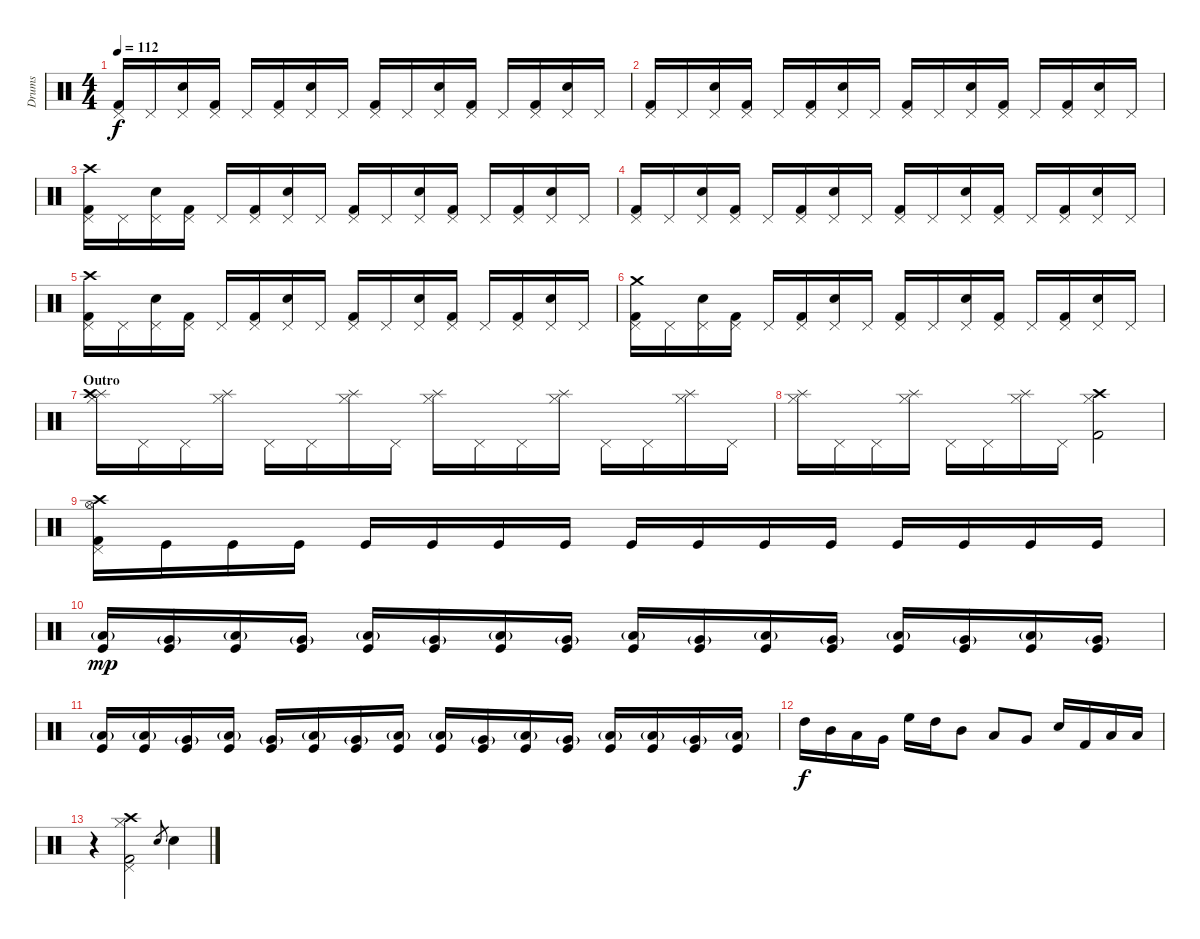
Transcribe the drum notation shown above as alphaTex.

\track ("Drums" "Drums") {instrument percussion}
\staff {score}
\articulation defaults
\ts (4 4)
\tempo 112
\clef neutral
\ks c
("Kick (hit) 2" "Pedal Hi-Hat (hit)").16{dy f} "Pedal Hi-Hat (hit)".16 ("Snare (hit) 2" "Pedal Hi-Hat (hit)").16 ("Kick (hit) 2" "Pedal Hi-Hat (hit)").16 "Pedal Hi-Hat (hit)".16 ("Kick (hit) 2" "Pedal Hi-Hat (hit)").16 ("Snare (hit) 2" "Pedal Hi-Hat (hit)").16 "Pedal Hi-Hat (hit)".16 ("Kick (hit) 2" "Pedal Hi-Hat (hit)").16 "Pedal Hi-Hat (hit)".16 ("Snare (hit) 2" "Pedal Hi-Hat (hit)").16 ("Kick (hit) 2" "Pedal Hi-Hat (hit)").16 "Pedal Hi-Hat (hit)".16 ("Kick (hit) 2" "Pedal Hi-Hat (hit)").16 ("Snare (hit) 2" "Pedal Hi-Hat (hit)").16 "Pedal Hi-Hat (hit)".16 |
("Kick (hit) 2" "Pedal Hi-Hat (hit)").16 "Pedal Hi-Hat (hit)".16 ("Snare (hit) 2" "Pedal Hi-Hat (hit)").16 ("Kick (hit) 2" "Pedal Hi-Hat (hit)").16 "Pedal Hi-Hat (hit)".16 ("Kick (hit) 2" "Pedal Hi-Hat (hit)").16 ("Snare (hit) 2" "Pedal Hi-Hat (hit)").16 "Pedal Hi-Hat (hit)".16 ("Kick (hit) 2" "Pedal Hi-Hat (hit)").16 "Pedal Hi-Hat (hit)".16 ("Snare (hit) 2" "Pedal Hi-Hat (hit)").16 ("Kick (hit) 2" "Pedal Hi-Hat (hit)").16 "Pedal Hi-Hat (hit)".16 ("Kick (hit) 2" "Pedal Hi-Hat (hit)").16 ("Snare (hit) 2" "Pedal Hi-Hat (hit)").16 "Pedal Hi-Hat (hit)".16 |
("Kick (hit) 2" "Pedal Hi-Hat (hit)" "Crash high (hit)").16 "Pedal Hi-Hat (hit)".16 ("Snare (hit) 2" "Pedal Hi-Hat (hit)").16 ("Kick (hit) 2" "Pedal Hi-Hat (hit)").16 "Pedal Hi-Hat (hit)".16 ("Kick (hit) 2" "Pedal Hi-Hat (hit)").16 ("Snare (hit) 2" "Pedal Hi-Hat (hit)").16 "Pedal Hi-Hat (hit)".16 ("Kick (hit) 2" "Pedal Hi-Hat (hit)").16 "Pedal Hi-Hat (hit)".16 ("Snare (hit) 2" "Pedal Hi-Hat (hit)").16 ("Kick (hit) 2" "Pedal Hi-Hat (hit)").16 "Pedal Hi-Hat (hit)".16 ("Kick (hit) 2" "Pedal Hi-Hat (hit)").16 ("Snare (hit) 2" "Pedal Hi-Hat (hit)").16 "Pedal Hi-Hat (hit)".16 |
("Kick (hit) 2" "Pedal Hi-Hat (hit)").16 "Pedal Hi-Hat (hit)".16 ("Snare (hit) 2" "Pedal Hi-Hat (hit)").16 ("Kick (hit) 2" "Pedal Hi-Hat (hit)").16 "Pedal Hi-Hat (hit)".16 ("Kick (hit) 2" "Pedal Hi-Hat (hit)").16 ("Snare (hit) 2" "Pedal Hi-Hat (hit)").16 "Pedal Hi-Hat (hit)".16 ("Kick (hit) 2" "Pedal Hi-Hat (hit)").16 "Pedal Hi-Hat (hit)".16 ("Snare (hit) 2" "Pedal Hi-Hat (hit)").16 ("Kick (hit) 2" "Pedal Hi-Hat (hit)").16 "Pedal Hi-Hat (hit)".16 ("Kick (hit) 2" "Pedal Hi-Hat (hit)").16 ("Snare (hit) 2" "Pedal Hi-Hat (hit)").16 "Pedal Hi-Hat (hit)".16 |
("Kick (hit) 2" "Pedal Hi-Hat (hit)" "Crash high (hit)").16 "Pedal Hi-Hat (hit)".16 ("Snare (hit) 2" "Pedal Hi-Hat (hit)").16 ("Kick (hit) 2" "Pedal Hi-Hat (hit)").16 "Pedal Hi-Hat (hit)".16 ("Kick (hit) 2" "Pedal Hi-Hat (hit)").16 ("Snare (hit) 2" "Pedal Hi-Hat (hit)").16 "Pedal Hi-Hat (hit)".16 ("Kick (hit) 2" "Pedal Hi-Hat (hit)").16 "Pedal Hi-Hat (hit)".16 ("Snare (hit) 2" "Pedal Hi-Hat (hit)").16 ("Kick (hit) 2" "Pedal Hi-Hat (hit)").16 "Pedal Hi-Hat (hit)".16 ("Kick (hit) 2" "Pedal Hi-Hat (hit)").16 ("Snare (hit) 2" "Pedal Hi-Hat (hit)").16 "Pedal Hi-Hat (hit)".16 |
("Kick (hit) 2" "Pedal Hi-Hat (hit)" "Crash medium (hit)").16 "Pedal Hi-Hat (hit)".16 ("Snare (hit) 2" "Pedal Hi-Hat (hit)").16 ("Kick (hit) 2" "Pedal Hi-Hat (hit)").16 "Pedal Hi-Hat (hit)".16 ("Kick (hit) 2" "Pedal Hi-Hat (hit)").16 ("Snare (hit) 2" "Pedal Hi-Hat (hit)").16 "Pedal Hi-Hat (hit)".16 ("Kick (hit) 2" "Pedal Hi-Hat (hit)").16 "Pedal Hi-Hat (hit)".16 ("Snare (hit) 2" "Pedal Hi-Hat (hit)").16 ("Kick (hit) 2" "Pedal Hi-Hat (hit)").16 "Pedal Hi-Hat (hit)".16 ("Kick (hit) 2" "Pedal Hi-Hat (hit)").16 ("Snare (hit) 2" "Pedal Hi-Hat (hit)").16 "Pedal Hi-Hat (hit)".16 |
\section ("" "Outro")
("Hi-Hat (closed)" "Splash (hit)" "Crash high (hit)").16 "Pedal Hi-Hat (hit)".16 "Pedal Hi-Hat (hit)".16 ("Hi-Hat (closed)" "Splash (hit)").16 "Pedal Hi-Hat (hit)".16 "Pedal Hi-Hat (hit)".16 ("Hi-Hat (closed)" "Splash (hit)").16 "Pedal Hi-Hat (hit)".16 ("Hi-Hat (closed)" "Splash (hit)").16 "Pedal Hi-Hat (hit)".16 "Pedal Hi-Hat (hit)".16 ("Hi-Hat (closed)" "Splash (hit)").16 "Pedal Hi-Hat (hit)".16 "Pedal Hi-Hat (hit)".16 ("Hi-Hat (closed)" "Splash (hit)").16 "Pedal Hi-Hat (hit)".16 |
("Hi-Hat (closed)" "Splash (hit)").16 "Pedal Hi-Hat (hit)".16 "Pedal Hi-Hat (hit)".16 ("Hi-Hat (closed)" "Splash (hit)").16 "Pedal Hi-Hat (hit)".16 "Pedal Hi-Hat (hit)".16 ("Hi-Hat (closed)" "Splash (hit)").16 "Pedal Hi-Hat (hit)".16 ("Kick (hit) 2" "Hi-Hat (closed)" "Crash high (hit)").2 |
("Kick (hit) 2" "Pedal Hi-Hat (hit)" "Hi-Hat (open)" "Crash high (hit)").16 "Kick (hit)".16 "Kick (hit)".16 "Kick (hit)".16 "Kick (hit)".16 "Kick (hit)".16 "Kick (hit)".16 "Kick (hit)".16 "Kick (hit)".16 "Kick (hit)".16 "Kick (hit)".16 "Kick (hit)".16 "Kick (hit)".16 "Kick (hit)".16 "Kick (hit)".16 "Kick (hit)".16 |
("Kick (hit)" "Low Tom (hit)"{g}).16{dy mp} ("Kick (hit)" "Very Low Tom (hit)"{g}).16 ("Kick (hit)" "Low Tom (hit)"{g}).16 ("Kick (hit)" "Very Low Tom (hit)"{g}).16 ("Kick (hit)" "Low Floor Tom (hit)"{g}).16 ("Kick (hit)" "Very Low Tom (hit)"{g}).16 ("Kick (hit)" "Low Tom (hit)"{g}).16 ("Kick (hit)" "Very Low Tom (hit)"{g}).16 ("Kick (hit)" "Low Tom (hit)"{g}).16 ("Kick (hit)" "Very Low Tom (hit)"{g}).16 ("Kick (hit)" "Low Floor Tom (hit)"{g}).16 ("Kick (hit)" "Very Low Tom (hit)"{g}).16 ("Kick (hit)" "Low Tom (hit)"{g}).16 ("Kick (hit)" "Very Low Tom (hit)"{g}).16 ("Kick (hit)" "Low Tom (hit)"{g}).16 ("Kick (hit)" "Very Low Tom (hit)"{g}).16 |
("Kick (hit)" "Low Tom (hit)"{g}).16 ("Kick (hit)" "Low Floor Tom (hit)"{g}).16 ("Kick (hit)" "Very Low Tom (hit)"{g}).16 ("Kick (hit)" "Low Tom (hit)"{g}).16 ("Kick (hit)" "Very Low Tom (hit)"{g}).16 ("Kick (hit)" "Low Floor Tom (hit)"{g}).16 ("Kick (hit)" "Very Low Tom (hit)"{g}).16 ("Kick (hit)" "Low Floor Tom (hit)"{g}).16 ("Kick (hit)" "Low Tom (hit)"{g}).16 ("Kick (hit)" "Very Low Tom (hit)"{g}).16 ("Kick (hit)" "Low Floor Tom (hit)"{g}).16 ("Kick (hit)" "Very Low Tom (hit)"{g}).16 ("Kick (hit)" "Low Floor Tom (hit)"{g}).16 ("Kick (hit)" "Low Tom (hit)"{g}).16 ("Kick (hit)" "Very Low Tom (hit)"{g}).16 ("Kick (hit)" "Low Floor Tom (hit)"{g}).16 |
"High Tom (hit)".16{dy f} "Mid Tom (hit)".16 "Low Tom (hit)".16 "Very Low Tom (hit)".16 "High Floor Tom (hit)".16 "High Tom (hit)".16 "Mid Tom (hit)".8 "Low Tom (hit)".8 "Very Low Tom (hit)".8 "Snare (hit) 2".16 "Kick (hit) 2".16 "Low Tom (hit)".16 "Low Floor Tom (hit)".16 |
r.4 ("Kick (hit) 2" "Pedal Hi-Hat (hit)" "Hi-Hat (closed)" "Crash high (hit)").2 "Snare (hit) 2".8{gr} "Snare (hit) 2".4
